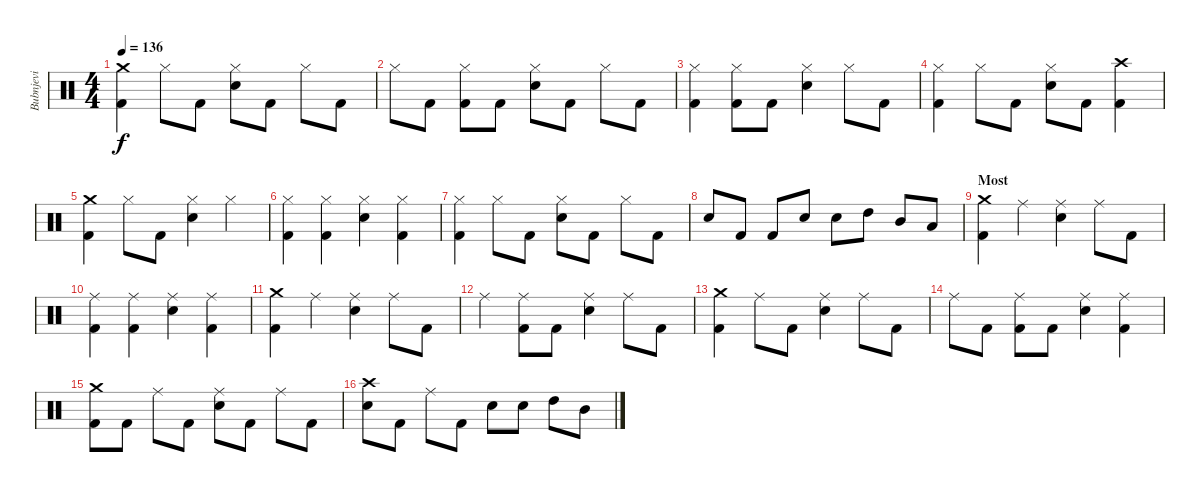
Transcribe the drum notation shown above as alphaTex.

\track ("Bubnjevi" "Bubnjevi") {instrument percussion}
\staff {score}
\articulation defaults
\ts (4 4)
\tempo 136
\clef neutral
\ks c
("Crash medium (hit)" "Kick (hit) 2").4{dy f} "Hi-Hat (closed)".8 "Kick (hit) 2".8 ("Hi-Hat (closed)" "Snare (hit) 2").8 "Kick (hit) 2".8 "Hi-Hat (closed)".8 "Kick (hit) 2".8 |
"Hi-Hat (closed)".8 "Kick (hit) 2".8 ("Hi-Hat (closed)" "Kick (hit) 2").8 "Kick (hit) 2".8 ("Hi-Hat (closed)" "Snare (hit) 2").8 "Kick (hit) 2".8 "Hi-Hat (closed)".8 "Kick (hit) 2".8 |
("Hi-Hat (closed)" "Kick (hit) 2").4 ("Hi-Hat (closed)" "Kick (hit) 2").8 "Kick (hit) 2".8 ("Hi-Hat (closed)" "Snare (hit) 2").4 "Hi-Hat (closed)".8 "Kick (hit) 2".8 |
("Hi-Hat (closed)" "Kick (hit) 2").4 "Hi-Hat (closed)".8 "Kick (hit) 2".8 ("Hi-Hat (closed)" "Snare (hit) 2").8 "Kick (hit) 2".8 ("Crash high (hit)" "Kick (hit) 2").4 |
("Crash medium (hit)" "Kick (hit) 2").4 "Hi-Hat (closed)".8 "Kick (hit) 2".8 ("Hi-Hat (closed)" "Snare (hit) 2").4 "Hi-Hat (closed)".4 |
("Hi-Hat (closed)" "Kick (hit) 2").4 ("Hi-Hat (closed)" "Kick (hit) 2").4 ("Hi-Hat (closed)" "Snare (hit) 2").4 ("Hi-Hat (closed)" "Kick (hit) 2").4 |
("Hi-Hat (closed)" "Kick (hit) 2").4 "Hi-Hat (closed)".8 "Kick (hit) 2".8 ("Hi-Hat (closed)" "Snare (hit) 2").8 "Kick (hit) 2".8 "Hi-Hat (closed)".8 "Kick (hit) 2".8 |
"Snare (hit) 2".8 "Kick (hit) 2".8 "Kick (hit) 2".8 "Snare (hit) 2".8 "Snare (hit) 2".8 "High Tom (hit)".8 "Mid Tom (hit)".8 "Low Tom (hit)".8 |
\section ("" "Most")
("Crash medium (hit)" "Kick (hit) 2").4 "Ride (middle)".4 ("Ride (middle)" "Snare (hit) 2").4 "Ride (middle)".8 "Kick (hit) 2".8 |
("Ride (middle)" "Kick (hit) 2").4 ("Ride (middle)" "Kick (hit) 2").4 ("Ride (middle)" "Snare (hit) 2").4 ("Ride (middle)" "Kick (hit) 2").4 |
("Crash medium (hit)" "Kick (hit) 2").4 "Ride (middle)".4 ("Ride (middle)" "Snare (hit) 2").4 "Ride (middle)".8 "Kick (hit) 2".8 |
"Ride (middle)".4 ("Ride (middle)" "Kick (hit) 2").8 "Kick (hit) 2".8 ("Ride (middle)" "Snare (hit) 2").4 "Ride (middle)".8 "Kick (hit) 2".8 |
("Crash medium (hit)" "Kick (hit) 2").4 "Ride (middle)".8 "Kick (hit) 2".8 ("Ride (middle)" "Snare (hit) 2").4 "Ride (middle)".8 "Kick (hit) 2".8 |
"Ride (middle)".8 "Kick (hit) 2".8 ("Ride (middle)" "Kick (hit) 2").8 "Kick (hit) 2".8 ("Ride (middle)" "Snare (hit) 2").4 ("Ride (middle)" "Kick (hit) 2").4 |
("Crash medium (hit)" "Kick (hit) 2").8 "Kick (hit) 2".8 "Ride (middle)".8 "Kick (hit) 2".8 ("Ride (middle)" "Snare (hit) 2").8 "Kick (hit) 2".8 "Ride (middle)".8 "Kick (hit) 2".8 |
("Crash high (hit)" "Snare (hit) 2").8 "Kick (hit) 2".8 "Ride (middle)".8 "Kick (hit) 2".8 "Snare (hit) 2".8 "Snare (hit) 2".8 "High Tom (hit)".8 "Mid Tom (hit)".8
